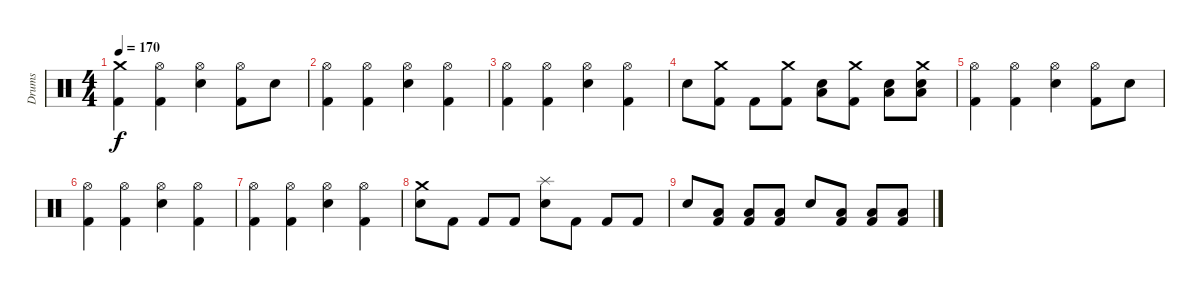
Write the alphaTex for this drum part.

\track ("Drums" "Drums") {instrument percussion}
\staff {score}
\articulation defaults
\ts (4 4)
\tempo 170
\clef neutral
\ks c
("Crash medium (hit)" "Kick (hit) 2").4{dy f} ("Hi-Hat (open)" "Kick (hit) 2").4 ("Hi-Hat (open)" "Snare (hit) 2").4 ("Hi-Hat (open)" "Kick (hit) 2").8 "Snare (hit) 2".8 |
("Hi-Hat (open)" "Kick (hit) 2").4 ("Hi-Hat (open)" "Kick (hit) 2").4 ("Hi-Hat (open)" "Snare (hit) 2").4 ("Hi-Hat (open)" "Kick (hit) 2").4 |
("Hi-Hat (open)" "Kick (hit) 2").4 ("Hi-Hat (open)" "Kick (hit) 2").4 ("Hi-Hat (open)" "Snare (hit) 2").4 ("Hi-Hat (open)" "Kick (hit) 2").4 |
"Snare (hit) 2".8 ("Crash medium (hit)" "Kick (hit) 2").8 "Kick (hit) 2".8 ("Crash medium (hit)" "Kick (hit) 2").8 ("Low Tom (hit)" "Snare (hit) 2").8 ("Crash medium (hit)" "Kick (hit) 2").8 ("Low Floor Tom (hit)" "Snare (hit) 2").8 ("Crash medium (hit)" "Low Floor Tom (hit)" "Snare (hit) 2").8 |
("Hi-Hat (open)" "Kick (hit) 2").4 ("Hi-Hat (open)" "Kick (hit) 2").4 ("Hi-Hat (open)" "Snare (hit) 2").4 ("Hi-Hat (open)" "Kick (hit) 2").8 "Snare (hit) 2".8 |
("Hi-Hat (open)" "Kick (hit) 2").4 ("Hi-Hat (open)" "Kick (hit) 2").4 ("Hi-Hat (open)" "Snare (hit) 2").4 ("Hi-Hat (open)" "Kick (hit) 2").4 |
("Hi-Hat (open)" "Kick (hit) 2").4 ("Hi-Hat (open)" "Kick (hit) 2").4 ("Hi-Hat (open)" "Snare (hit) 2").4 ("Hi-Hat (open)" "Kick (hit) 2").4 |
("Crash medium (hit)" "Snare (hit) 2").8 "Kick (hit) 2".8 "Kick (hit) 2".8 "Kick (hit) 2".8 ("Splash (hit)" "Snare (hit) 2").8 "Kick (hit) 2".8 "Kick (hit) 2".8 "Kick (hit) 2".8 |
"Snare (hit) 2".8 ("Low Tom (hit)" "Kick (hit) 2").8 ("Low Floor Tom (hit)" "Kick (hit) 2").8 ("Low Floor Tom (hit)" "Kick (hit) 2").8 "Snare (hit) 2".8 ("Low Tom (hit)" "Kick (hit) 2").8 ("Low Floor Tom (hit)" "Kick (hit) 2").8 ("Low Floor Tom (hit)" "Kick (hit) 2").8
